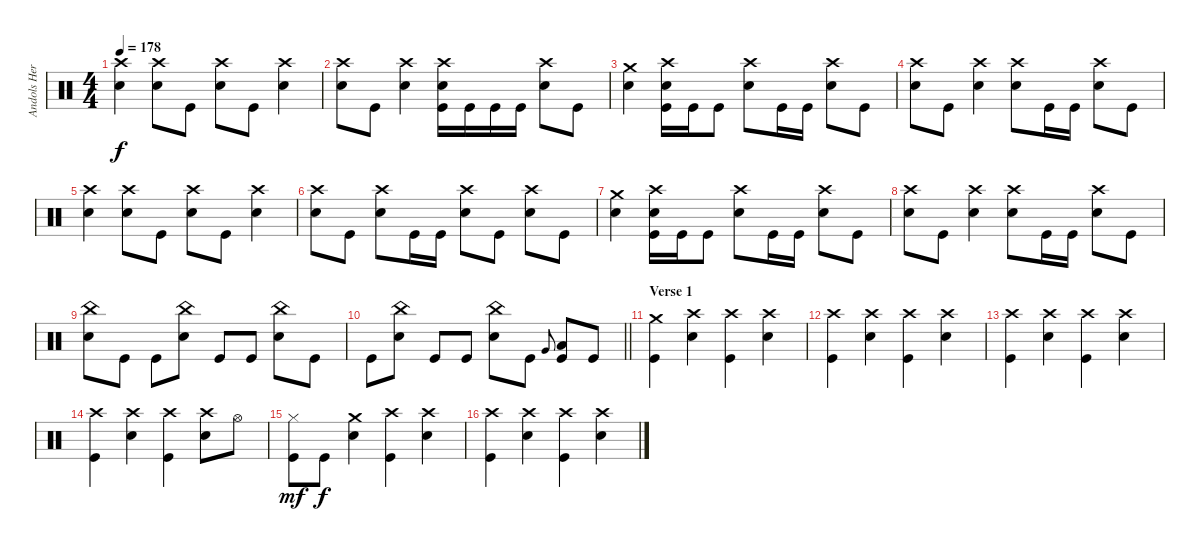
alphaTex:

\track ("Andols Herrick" "Andols Her") {instrument percussion}
\staff {score}
\articulation defaults
\ts (4 4)
\tempo 178
\clef neutral
\ks c
("Crash high (hit)" "Electric Snare (hit)").4{dy f} ("Crash high (hit)" "Electric Snare (hit)").8 "Kick (hit)".8 ("Crash high (hit)" "Electric Snare (hit)").8 "Kick (hit)".8 ("Crash high (hit)" "Electric Snare (hit)").4 |
("Crash high (hit)" "Electric Snare (hit)").8 "Kick (hit)".8 ("Crash high (hit)" "Electric Snare (hit)").4 ("Crash high (hit)" "Electric Snare (hit)" "Kick (hit)").16 "Kick (hit)".16 "Kick (hit)".16 "Kick (hit)".16 ("Crash high (hit)" "Electric Snare (hit)").8 "Kick (hit)".8 |
("Crash medium (hit)" "Electric Snare (hit)").4 ("Crash high (hit)" "Electric Snare (hit)" "Kick (hit)").16 "Kick (hit)".16 "Kick (hit)".8 ("Crash high (hit)" "Electric Snare (hit)").8 "Kick (hit)".16 "Kick (hit)".16 ("Crash high (hit)" "Electric Snare (hit)").8 "Kick (hit)".8 |
("Crash high (hit)" "Electric Snare (hit)").8 "Kick (hit)".8 ("Crash high (hit)" "Electric Snare (hit)").4 ("Crash high (hit)" "Electric Snare (hit)").8 "Kick (hit)".16 "Kick (hit)".16 ("Crash high (hit)" "Electric Snare (hit)").8 "Kick (hit)".8 |
("Crash high (hit)" "Electric Snare (hit)").4 ("Crash high (hit)" "Electric Snare (hit)").8 "Kick (hit)".8 ("Crash high (hit)" "Electric Snare (hit)").8 "Kick (hit)".8 ("Crash high (hit)" "Electric Snare (hit)").4 |
("Crash high (hit)" "Electric Snare (hit)").8 "Kick (hit)".8 ("Crash high (hit)" "Electric Snare (hit)").8 "Kick (hit)".16 "Kick (hit)".16 ("Crash high (hit)" "Electric Snare (hit)").8 "Kick (hit)".8 ("Crash high (hit)" "Electric Snare (hit)").8 "Kick (hit)".8 |
("Crash medium (hit)" "Electric Snare (hit)").4 ("Crash high (hit)" "Electric Snare (hit)" "Kick (hit)").16 "Kick (hit)".16 "Kick (hit)".8 ("Crash high (hit)" "Electric Snare (hit)").8 "Kick (hit)".16 "Kick (hit)".16 ("Crash high (hit)" "Electric Snare (hit)").8 "Kick (hit)".8 |
("Crash high (hit)" "Electric Snare (hit)").8 "Kick (hit)".8 ("Crash high (hit)" "Electric Snare (hit)").4 ("Crash high (hit)" "Electric Snare (hit)").8 "Kick (hit)".16 "Kick (hit)".16 ("Crash high (hit)" "Electric Snare (hit)").8 "Kick (hit)".8 |
("China (hit)" "Electric Snare (hit)").8 "Kick (hit)".8 "Kick (hit)".8 ("China (hit)" "Electric Snare (hit)").8 "Kick (hit)".8 "Kick (hit)".8 ("China (hit)" "Electric Snare (hit)").8 "Kick (hit)".8 |
\barLineRight lightlight "Kick (hit)".8
("China (hit)" "Electric Snare (hit)").8 "Kick (hit)".8 "Kick (hit)".8 ("China (hit)" "Electric Snare (hit)").8 "Kick (hit)".8 "Very Low Tom (hit)".8{gr onbeat} ("Low Tom (hit)" "Kick (hit)").8 "Kick (hit)".8 |
\section ("" "Verse 1")
("Crash medium (hit)" "Kick (hit)").4 ("Crash high (hit)" "Electric Snare (hit)").4 ("Crash high (hit)" "Kick (hit)").4 ("Crash high (hit)" "Electric Snare (hit)").4 |
("Crash high (hit)" "Kick (hit)").4 ("Crash high (hit)" "Electric Snare (hit)").4 ("Crash high (hit)" "Kick (hit)").4 ("Crash high (hit)" "Electric Snare (hit)").4 |
("Crash high (hit)" "Kick (hit)").4 ("Crash high (hit)" "Electric Snare (hit)").4 ("Crash high (hit)" "Kick (hit)").4 ("Crash high (hit)" "Electric Snare (hit)").4 |
("Crash high (hit)" "Kick (hit)").4 ("Crash high (hit)" "Electric Snare (hit)").4 ("Crash high (hit)" "Kick (hit)").4 ("Crash high (hit)" "Electric Snare (hit)").8 "Hi-Hat (open)".8 |
("Hi-Hat (closed)" "Kick (hit)").8{dy mf} "Kick (hit)".8{dy f} ("Crash medium (hit)" "Electric Snare (hit)").4 ("Crash high (hit)" "Kick (hit)").4 ("Crash high (hit)" "Electric Snare (hit)").4 |
("Crash high (hit)" "Kick (hit)").4 ("Crash high (hit)" "Electric Snare (hit)").4 ("Crash high (hit)" "Kick (hit)").4 ("Crash high (hit)" "Electric Snare (hit)").4
